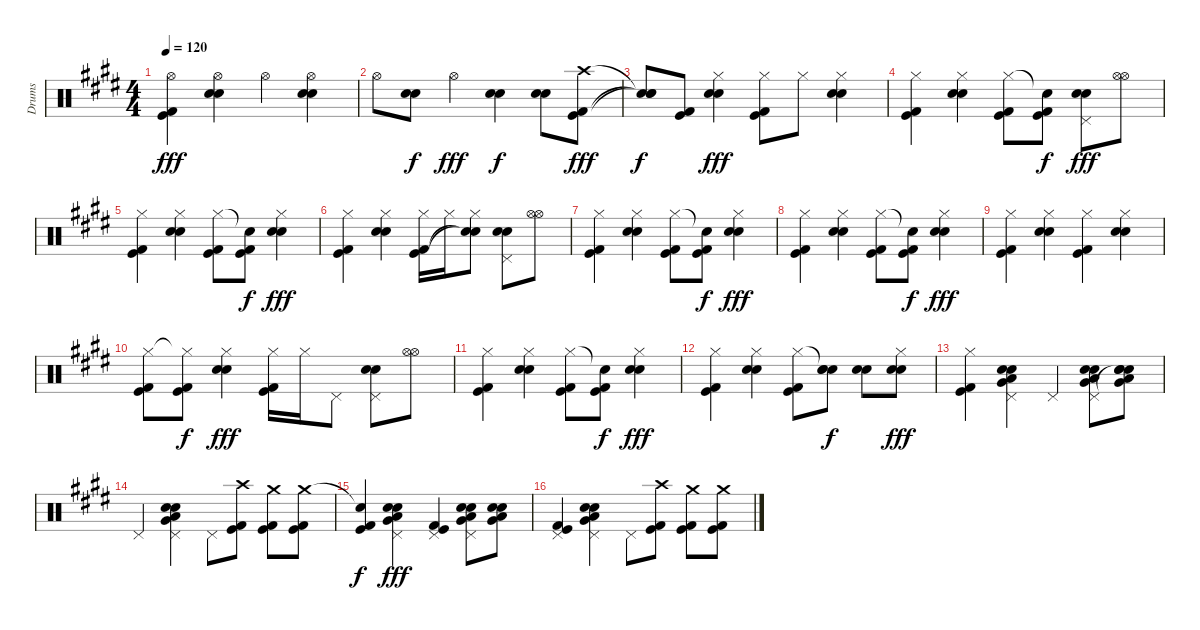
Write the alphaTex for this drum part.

\track ("Drums" "Drums") {instrument percussion}
\staff {score}
\articulation defaults
\ts (4 4)
\tempo 120
\clef neutral
\ks e
("Hi-Hat (open)" "Kick (hit)" "Kick (hit) 2").4{dy fff} ("Hi-Hat (open)" "Electric Snare (hit)" "Snare (hit) 2").4 "Hi-Hat (open)".4 ("Hi-Hat (open)" "Electric Snare (hit)" "Snare (hit) 2").4 |
"Hi-Hat (open)".8 ("Electric Snare (hit)" "Snare (hit) 2").8{dy f} "Hi-Hat (open)".4{dy fff} ("Electric Snare (hit)" "Snare (hit) 2").4{dy f} ("Electric Snare (hit)" "Snare (hit) 2").8 ("Crash high (hit)" "Kick (hit)" "Kick (hit) 2").8{dy fff} |
("Snare (hit)"{t} "Snare (hit)"{t} "Snare (hit)"{t}).8{dy f} ("Kick (hit)" "Kick (hit) 2").8 ("Hi-Hat (closed)" "Electric Snare (hit)" "Snare (hit) 2").4{dy fff} ("Hi-Hat (closed)" "Kick (hit)" "Kick (hit) 2").8 "Hi-Hat (closed)".8 ("Hi-Hat (closed)" "Electric Snare (hit)" "Snare (hit) 2").4 |
("Hi-Hat (closed)" "Kick (hit)" "Kick (hit) 2").4 ("Hi-Hat (closed)" "Electric Snare (hit)" "Snare (hit) 2").4 ("Hi-Hat (closed)" "Kick (hit)" "Kick (hit) 2").8 ("Snare (hit)"{t} "Kick (hit)" "Kick (hit) 2").8{dy f} ("Pedal Hi-Hat (hit)" "Electric Snare (hit)" "Snare (hit) 2").8{dy fff} ("Hi-Hat (open)" "Hi-Hat (open)").8 |
("Hi-Hat (closed)" "Kick (hit)" "Kick (hit) 2").4 ("Hi-Hat (closed)" "Electric Snare (hit)" "Snare (hit) 2").4 ("Hi-Hat (closed)" "Kick (hit)" "Kick (hit) 2").8 ("Snare (hit)"{t} "Kick (hit)" "Kick (hit) 2").8{dy f} ("Hi-Hat (closed)" "Electric Snare (hit)" "Snare (hit) 2").4{dy fff} |
("Hi-Hat (closed)" "Kick (hit)" "Kick (hit) 2").4 ("Hi-Hat (closed)" "Electric Snare (hit)" "Snare (hit) 2").4 ("Hi-Hat (closed)" "Kick (hit)" "Kick (hit) 2").16 "Hi-Hat (closed)".16 ("Hi-Hat (closed)" "Snare (hit)"{t} "Snare (hit)"{t}).8 ("Pedal Hi-Hat (hit)" "Electric Snare (hit)" "Snare (hit) 2").8 ("Hi-Hat (open)" "Hi-Hat (open)").8 |
("Hi-Hat (closed)" "Kick (hit)" "Kick (hit) 2").4 ("Hi-Hat (closed)" "Electric Snare (hit)" "Snare (hit) 2").4 ("Hi-Hat (closed)" "Kick (hit)" "Kick (hit) 2").8 ("Snare (hit)"{t} "Kick (hit)" "Kick (hit) 2").8{dy f} ("Hi-Hat (closed)" "Electric Snare (hit)" "Snare (hit) 2").4{dy fff} |
("Hi-Hat (closed)" "Kick (hit)" "Kick (hit) 2").4 ("Hi-Hat (closed)" "Electric Snare (hit)" "Snare (hit) 2").4 ("Hi-Hat (closed)" "Kick (hit)" "Kick (hit) 2").8 ("Snare (hit)"{t} "Kick (hit)" "Kick (hit) 2").8{dy f} ("Hi-Hat (closed)" "Electric Snare (hit)" "Snare (hit) 2").4{dy fff} |
("Hi-Hat (closed)" "Kick (hit)" "Kick (hit) 2").4 ("Hi-Hat (closed)" "Electric Snare (hit)" "Snare (hit) 2").4 ("Hi-Hat (closed)" "Kick (hit)" "Kick (hit) 2").4 ("Hi-Hat (closed)" "Electric Snare (hit)" "Snare (hit) 2").4 |
("Hi-Hat (closed)" "Kick (hit)" "Kick (hit) 2").8 ("Hi-Hat (closed)"{t} "Kick (hit)" "Kick (hit) 2").8{dy f} ("Hi-Hat (closed)" "Electric Snare (hit)" "Snare (hit) 2").4{dy fff} ("Hi-Hat (closed)" "Kick (hit)" "Kick (hit) 2").16 "Hi-Hat (closed)".16 "Pedal Hi-Hat (hit)".8 ("Pedal Hi-Hat (hit)" "Electric Snare (hit)" "Snare (hit) 2").8 ("Hi-Hat (open)" "Hi-Hat (open)").8 |
("Hi-Hat (closed)" "Kick (hit)" "Kick (hit) 2").4 ("Hi-Hat (closed)" "Electric Snare (hit)" "Snare (hit) 2").4 ("Hi-Hat (closed)" "Kick (hit)" "Kick (hit) 2").8 ("Snare (hit)"{t} "Kick (hit)" "Kick (hit) 2").8{dy f} ("Hi-Hat (closed)" "Electric Snare (hit)" "Snare (hit) 2").4{dy fff} |
("Hi-Hat (closed)" "Kick (hit)" "Kick (hit) 2").4 ("Hi-Hat (closed)" "Electric Snare (hit)" "Snare (hit) 2").4 ("Hi-Hat (closed)" "Kick (hit)" "Kick (hit) 2").8 ("Snare (hit)"{t} "Electric Snare (hit)" "Snare (hit) 2").8{dy f} ("Electric Snare (hit)" "Snare (hit) 2").8 ("Hi-Hat (closed)" "Electric Snare (hit)" "Snare (hit) 2").8{dy fff} |
("Hi-Hat (closed)" "Kick (hit)" "Kick (hit) 2").4 ("Pedal Hi-Hat (hit)" "Electric Snare (hit)" "Snare (hit) 2" "Very Low Tom (hit)" "Low Floor Tom (hit)").4 "Pedal Hi-Hat (hit)".4 ("Pedal Hi-Hat (hit)" "Electric Snare (hit)" "Snare (hit) 2" "Very Low Tom (hit)" "Low Floor Tom (hit)").8 ("Snare (hit)"{t} "Electric Snare (hit)" "Snare (hit) 2" "Very Low Tom (hit)" "Low Floor Tom (hit)").8 |
"Pedal Hi-Hat (hit)".4 ("Pedal Hi-Hat (hit)" "Electric Snare (hit)" "Snare (hit) 2" "Very Low Tom (hit)" "Low Floor Tom (hit)").4 "Pedal Hi-Hat (hit)".8 ("Crash high (hit)" "Kick (hit)" "Kick (hit) 2").8 ("Crash medium (hit)" "Kick (hit)" "Kick (hit) 2").8 ("Crash medium (hit)" "Kick (hit)" "Kick (hit) 2").8 |
("Snare (hit)"{t} "Kick (hit)" "Kick (hit) 2").4{dy f} ("Pedal Hi-Hat (hit)" "Electric Snare (hit)" "Snare (hit) 2" "Very Low Tom (hit)" "Low Floor Tom (hit)").4{dy fff} ("Pedal Hi-Hat (hit)" "Kick (hit)" "Kick (hit) 2").4 ("Pedal Hi-Hat (hit)" "Electric Snare (hit)" "Snare (hit) 2" "Very Low Tom (hit)" "Low Floor Tom (hit)").8 ("Electric Snare (hit)" "Snare (hit) 2" "Very Low Tom (hit)" "Low Floor Tom (hit)").8 |
("Pedal Hi-Hat (hit)" "Kick (hit)" "Kick (hit) 2").4 ("Pedal Hi-Hat (hit)" "Electric Snare (hit)" "Snare (hit) 2" "Very Low Tom (hit)" "Low Floor Tom (hit)").4 "Pedal Hi-Hat (hit)".8 ("Crash high (hit)" "Kick (hit)" "Kick (hit) 2").8 ("Crash medium (hit)" "Kick (hit)" "Kick (hit) 2").8 ("Crash medium (hit)" "Kick (hit)" "Kick (hit) 2").8
